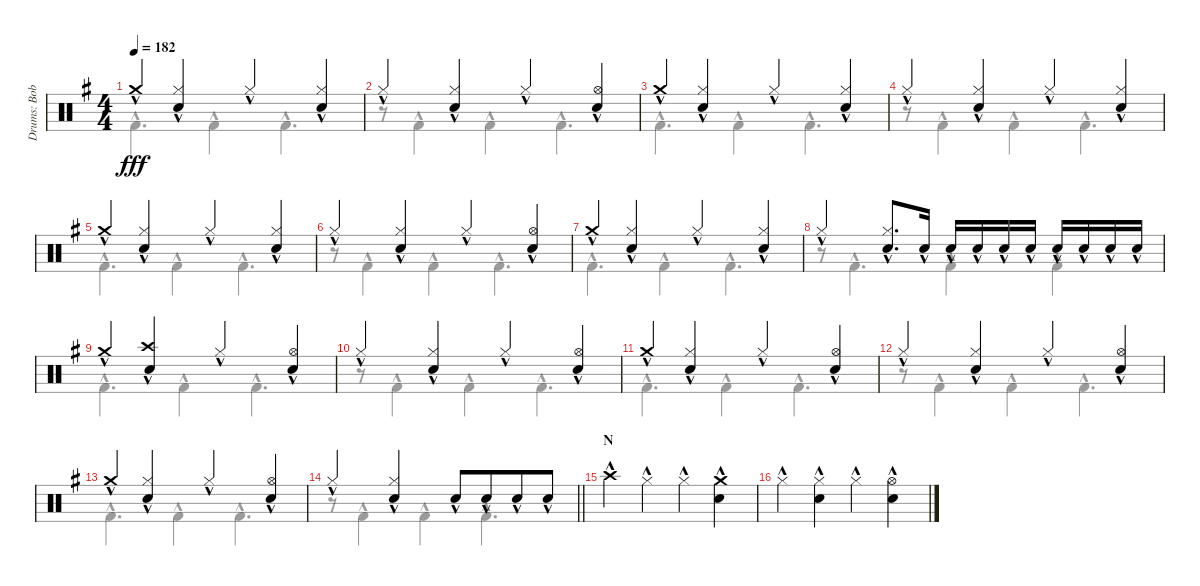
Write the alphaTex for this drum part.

\track ("Drums: Bobby" "Drums: Bob") {instrument percussion}
\staff {score}
\articulation defaults
\voice
\ts (4 4)
\tempo 182
\clef neutral
\ks g "Crash medium (hit)"{hac}.4{dy fff}
("Hi-Hat (closed)"{hac} "Snare (hit) 2"{hac}).4 "Hi-Hat (closed)"{hac}.4 ("Hi-Hat (closed)"{hac} "Snare (hit) 2"{hac}).4 |
"Hi-Hat (closed)"{hac}.4 ("Hi-Hat (closed)"{hac} "Snare (hit) 2"{hac}).4 "Hi-Hat (closed)"{hac}.4 ("Hi-Hat (open)"{hac} "Snare (hit) 2"{hac}).4 |
"Crash medium (hit)"{hac}.4 ("Hi-Hat (closed)"{hac} "Snare (hit) 2"{hac}).4 "Hi-Hat (closed)"{hac}.4 ("Hi-Hat (closed)"{hac} "Snare (hit) 2"{hac}).4 |
"Hi-Hat (closed)"{hac}.4 ("Hi-Hat (closed)"{hac} "Snare (hit) 2"{hac}).4 "Hi-Hat (closed)"{hac}.4 ("Hi-Hat (closed)"{hac} "Snare (hit) 2"{hac}).4 |
"Crash medium (hit)"{hac}.4 ("Hi-Hat (closed)"{hac} "Snare (hit) 2"{hac}).4 "Hi-Hat (closed)"{hac}.4 ("Hi-Hat (closed)"{hac} "Snare (hit) 2"{hac}).4 |
"Hi-Hat (closed)"{hac}.4 ("Hi-Hat (closed)"{hac} "Snare (hit) 2"{hac}).4 "Hi-Hat (closed)"{hac}.4 ("Hi-Hat (open)"{hac} "Snare (hit) 2"{hac}).4 |
"Crash medium (hit)"{hac}.4 ("Hi-Hat (closed)"{hac} "Snare (hit) 2"{hac}).4 "Hi-Hat (closed)"{hac}.4 ("Hi-Hat (closed)"{hac} "Snare (hit) 2"{hac}).4 |
"Hi-Hat (closed)"{hac}.4 ("Hi-Hat (closed)"{hac} "Snare (hit) 2"{hac}).8{d} "Snare (hit) 2"{hac}.16 "Snare (hit) 2"{hac}.16 "Snare (hit) 2"{hac}.16 "Snare (hit) 2"{hac}.16 "Snare (hit) 2"{hac}.16 "Snare (hit) 2"{hac}.16 "Snare (hit) 2"{hac}.16 "Snare (hit) 2"{hac}.16 "Snare (hit) 2"{hac}.16 |
"Crash medium (hit)"{hac}.4 ("Crash high (hit)"{hac} "Snare (hit) 2"{hac}).4 "Hi-Hat (closed)"{hac}.4 ("Hi-Hat (open)"{hac} "Snare (hit) 2"{hac}).4 |
"Hi-Hat (closed)"{hac}.4 ("Hi-Hat (closed)"{hac} "Snare (hit) 2"{hac}).4 "Hi-Hat (closed)"{hac}.4 ("Hi-Hat (open)"{hac} "Snare (hit) 2"{hac}).4 |
"Crash medium (hit)"{hac}.4 ("Hi-Hat (closed)"{hac} "Snare (hit) 2"{hac}).4 "Hi-Hat (closed)"{hac}.4 ("Hi-Hat (open)"{hac} "Snare (hit) 2"{hac}).4 |
"Hi-Hat (closed)"{hac}.4 ("Hi-Hat (closed)"{hac} "Snare (hit) 2"{hac}).4 "Hi-Hat (closed)"{hac}.4 ("Hi-Hat (open)"{hac} "Snare (hit) 2"{hac}).4 |
"Crash medium (hit)"{hac}.4 ("Hi-Hat (closed)"{hac} "Snare (hit) 2"{hac}).4 "Hi-Hat (closed)"{hac}.4 ("Hi-Hat (open)"{hac} "Snare (hit) 2"{hac}).4 |
\barLineRight lightlight "Hi-Hat (closed)"{hac}.4
("Hi-Hat (closed)"{hac} "Snare (hit) 2"{hac}).4 "Snare (hit) 2"{hac}.8 "Snare (hit) 2"{hac}.8{beam merge} "Snare (hit) 2"{hac}.8 "Snare (hit) 2"{hac}.8 |
\section ("" "N")
"Crash high (hit)"{hac}.4 "Hi-Hat (closed)"{hac}.4 "Hi-Hat (closed)"{hac}.4 ("Crash medium (hit)"{hac} "Snare (hit) 2"{hac}).4 |
"Hi-Hat (closed)"{hac}.4 ("Hi-Hat (closed)"{hac} "Snare (hit) 2"{hac}).4 "Hi-Hat (closed)"{hac}.4 ("Hi-Hat (open)"{hac} "Snare (hit) 2"{hac}).4
\voice
\clef neutral
\ottava regular
\simile none
\ks g "Kick (hit) 2"{hac}.4{d dy fff} "Kick (hit) 2"{hac}.4 "Kick (hit) 2"{hac}.4{d}
|
r.8 "Kick (hit) 2"{hac}.4 "Kick (hit) 2"{hac}.4 "Kick (hit) 2"{hac}.4{d} |
"Kick (hit) 2"{hac}.4{d} "Kick (hit) 2"{hac}.4 "Kick (hit) 2"{hac}.4{d} |
r.8 "Kick (hit) 2"{hac}.4 "Kick (hit) 2"{hac}.4 "Kick (hit) 2"{hac}.4{d} |
"Kick (hit) 2"{hac}.4{d} "Kick (hit) 2"{hac}.4 "Kick (hit) 2"{hac}.4{d} |
r.8 "Kick (hit) 2"{hac}.4 "Kick (hit) 2"{hac}.4 "Kick (hit) 2"{hac}.4{d} |
"Kick (hit) 2"{hac}.4{d} "Kick (hit) 2"{hac}.4 "Kick (hit) 2"{hac}.4{d} |
r.8 "Kick (hit) 2"{hac}.4{d} "Kick (hit) 2"{hac}.4 "Kick (hit) 2"{hac}.4 |
"Kick (hit) 2"{hac}.4{d} "Kick (hit) 2"{hac}.4 "Kick (hit) 2"{hac}.4{d} |
r.8 "Kick (hit) 2"{hac}.4 "Kick (hit) 2"{hac}.4 "Kick (hit) 2"{hac}.4{d} |
"Kick (hit) 2"{hac}.4{d} "Kick (hit) 2"{hac}.4 "Kick (hit) 2"{hac}.4{d} |
r.8 "Kick (hit) 2"{hac}.4 "Kick (hit) 2"{hac}.4 "Kick (hit) 2"{hac}.4{d} |
"Kick (hit) 2"{hac}.4{d} "Kick (hit) 2"{hac}.4 "Kick (hit) 2"{hac}.4{d} |
\barLineRight lightlight
r.8 "Kick (hit) 2"{hac}.4 "Kick (hit) 2"{hac}.4 "Kick (hit) 2"{hac}.4{d} |
|
